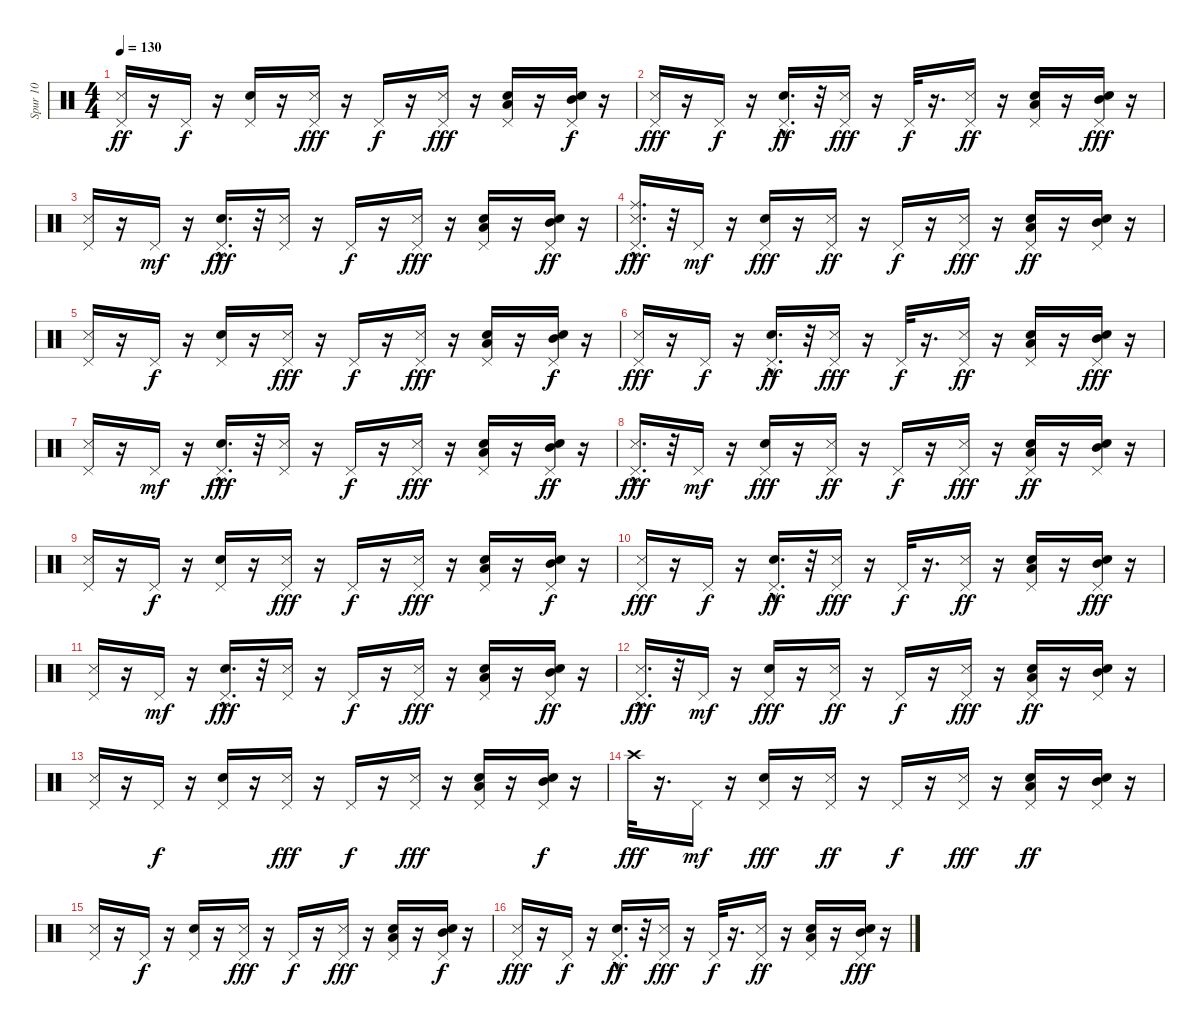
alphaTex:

\track ("Spur 10" "Spur 10") {instrument percussion}
\staff {score}
\articulation defaults
\ts (4 4)
\tempo 130
\clef neutral
\ks c
("Metronome (hit)" "Pedal Hi-Hat (hit)").16{dy ff} r.16 "Pedal Hi-Hat (hit)".16{dy f} r.16 ("Snare (hit) 2" "Pedal Hi-Hat (hit)").16 r.16 ("Metronome (hit)" "Pedal Hi-Hat (hit)").16{dy fff} r.16 "Pedal Hi-Hat (hit)".16{dy f} r.16 ("Metronome (hit)" "Pedal Hi-Hat (hit)").16{dy fff} r.16 ("Snare (hit) 2" "Low Tom (hit)" "Pedal Hi-Hat (hit)").16 r.16 ("Snare (hit) 2" "Mid Tom (hit)" "Pedal Hi-Hat (hit)").16{dy f} r.16 |
("Pedal Hi-Hat (hit)" "Metronome (hit)").16{dy fff} r.16 "Pedal Hi-Hat (hit)".16{dy f} r.16 ("Snare (hit) 2"{hac} "Pedal Hi-Hat (hit)").16{d dy ff} r.32 ("Metronome (hit)" "Pedal Hi-Hat (hit)").16{dy fff} r.16 "Pedal Hi-Hat (hit)".32{dy f} r.16{d} ("Metronome (hit)" "Pedal Hi-Hat (hit)").16{dy ff} r.16 ("Low Tom (hit)" "Snare (hit) 2" "Pedal Hi-Hat (hit)").16 r.16 ("Mid Tom (hit)" "Snare (hit) 2" "Pedal Hi-Hat (hit)").16{dy fff} r.16 |
("Pedal Hi-Hat (hit)" "Metronome (hit)").16 r.16 "Pedal Hi-Hat (hit)".16{dy mf} r.16 ("Pedal Hi-Hat (hit)" "Snare (hit) 2"{hac}).16{d dy fff} r.32 ("Pedal Hi-Hat (hit)" "Metronome (hit)").16 r.16 "Pedal Hi-Hat (hit)".16{dy f} r.16 ("Pedal Hi-Hat (hit)" "Metronome (hit)").16{dy fff} r.16 ("Low Tom (hit)" "Pedal Hi-Hat (hit)" "Snare (hit) 2").16 r.16 ("Mid Tom (hit)" "Pedal Hi-Hat (hit)" "Snare (hit) 2").16{dy ff} r.16 |
("Ride (middle)" "Pedal Hi-Hat (hit)" "Metronome (hit)"{hac}).16{d dy fff} r.32 "Pedal Hi-Hat (hit)".16{dy mf} r.16 ("Pedal Hi-Hat (hit)" "Snare (hit) 2").16{dy fff} r.16 ("Metronome (hit)" "Pedal Hi-Hat (hit)").16{dy ff} r.16 "Pedal Hi-Hat (hit)".16{dy f} r.16 ("Metronome (hit)" "Pedal Hi-Hat (hit)").16{dy fff} r.16 ("Snare (hit) 2" "Low Tom (hit)" "Pedal Hi-Hat (hit)").16{dy ff} r.16 ("Snare (hit) 2" "Mid Tom (hit)" "Pedal Hi-Hat (hit)").16 r.16 |
("Metronome (hit)" "Pedal Hi-Hat (hit)").16 r.16 "Pedal Hi-Hat (hit)".16{dy f} r.16 ("Snare (hit) 2" "Pedal Hi-Hat (hit)").16 r.16 ("Metronome (hit)" "Pedal Hi-Hat (hit)").16{dy fff} r.16 "Pedal Hi-Hat (hit)".16{dy f} r.16 ("Metronome (hit)" "Pedal Hi-Hat (hit)").16{dy fff} r.16 ("Snare (hit) 2" "Low Tom (hit)" "Pedal Hi-Hat (hit)").16 r.16 ("Snare (hit) 2" "Mid Tom (hit)" "Pedal Hi-Hat (hit)").16{dy f} r.16 |
("Pedal Hi-Hat (hit)" "Metronome (hit)").16{dy fff} r.16 "Pedal Hi-Hat (hit)".16{dy f} r.16 ("Snare (hit) 2"{hac} "Pedal Hi-Hat (hit)").16{d dy ff} r.32 ("Metronome (hit)" "Pedal Hi-Hat (hit)").16{dy fff} r.16 "Pedal Hi-Hat (hit)".32{dy f} r.16{d} ("Metronome (hit)" "Pedal Hi-Hat (hit)").16{dy ff} r.16 ("Low Tom (hit)" "Snare (hit) 2" "Pedal Hi-Hat (hit)").16 r.16 ("Mid Tom (hit)" "Snare (hit) 2" "Pedal Hi-Hat (hit)").16{dy fff} r.16 |
("Pedal Hi-Hat (hit)" "Metronome (hit)").16 r.16 "Pedal Hi-Hat (hit)".16{dy mf} r.16 ("Pedal Hi-Hat (hit)" "Snare (hit) 2"{hac}).16{d dy fff} r.32 ("Pedal Hi-Hat (hit)" "Metronome (hit)").16 r.16 "Pedal Hi-Hat (hit)".16{dy f} r.16 ("Pedal Hi-Hat (hit)" "Metronome (hit)").16{dy fff} r.16 ("Low Tom (hit)" "Pedal Hi-Hat (hit)" "Snare (hit) 2").16 r.16 ("Mid Tom (hit)" "Pedal Hi-Hat (hit)" "Snare (hit) 2").16{dy ff} r.16 |
("Pedal Hi-Hat (hit)" "Metronome (hit)"{hac}).16{d dy fff} r.32 "Pedal Hi-Hat (hit)".16{dy mf} r.16 ("Pedal Hi-Hat (hit)" "Snare (hit) 2").16{dy fff} r.16 ("Metronome (hit)" "Pedal Hi-Hat (hit)").16{dy ff} r.16 "Pedal Hi-Hat (hit)".16{dy f} r.16 ("Metronome (hit)" "Pedal Hi-Hat (hit)").16{dy fff} r.16 ("Snare (hit) 2" "Low Tom (hit)" "Pedal Hi-Hat (hit)").16{dy ff} r.16 ("Snare (hit) 2" "Mid Tom (hit)" "Pedal Hi-Hat (hit)").16 r.16 |
("Metronome (hit)" "Pedal Hi-Hat (hit)").16 r.16 "Pedal Hi-Hat (hit)".16{dy f} r.16 ("Snare (hit) 2" "Pedal Hi-Hat (hit)").16 r.16 ("Metronome (hit)" "Pedal Hi-Hat (hit)").16{dy fff} r.16 "Pedal Hi-Hat (hit)".16{dy f} r.16 ("Metronome (hit)" "Pedal Hi-Hat (hit)").16{dy fff} r.16 ("Snare (hit) 2" "Low Tom (hit)" "Pedal Hi-Hat (hit)").16 r.16 ("Snare (hit) 2" "Mid Tom (hit)" "Pedal Hi-Hat (hit)").16{dy f} r.16 |
("Pedal Hi-Hat (hit)" "Metronome (hit)").16{dy fff} r.16 "Pedal Hi-Hat (hit)".16{dy f} r.16 ("Snare (hit) 2"{hac} "Pedal Hi-Hat (hit)").16{d dy ff} r.32 ("Metronome (hit)" "Pedal Hi-Hat (hit)").16{dy fff} r.16 "Pedal Hi-Hat (hit)".32{dy f} r.16{d} ("Metronome (hit)" "Pedal Hi-Hat (hit)").16{dy ff} r.16 ("Low Tom (hit)" "Snare (hit) 2" "Pedal Hi-Hat (hit)").16 r.16 ("Mid Tom (hit)" "Snare (hit) 2" "Pedal Hi-Hat (hit)").16{dy fff} r.16 |
("Pedal Hi-Hat (hit)" "Metronome (hit)").16 r.16 "Pedal Hi-Hat (hit)".16{dy mf} r.16 ("Pedal Hi-Hat (hit)" "Snare (hit) 2"{hac}).16{d dy fff} r.32 ("Pedal Hi-Hat (hit)" "Metronome (hit)").16 r.16 "Pedal Hi-Hat (hit)".16{dy f} r.16 ("Pedal Hi-Hat (hit)" "Metronome (hit)").16{dy fff} r.16 ("Low Tom (hit)" "Pedal Hi-Hat (hit)" "Snare (hit) 2").16 r.16 ("Mid Tom (hit)" "Pedal Hi-Hat (hit)" "Snare (hit) 2").16{dy ff} r.16 |
("Pedal Hi-Hat (hit)" "Metronome (hit)"{hac}).16{d dy fff} r.32 "Pedal Hi-Hat (hit)".16{dy mf} r.16 ("Pedal Hi-Hat (hit)" "Snare (hit) 2").16{dy fff} r.16 ("Metronome (hit)" "Pedal Hi-Hat (hit)").16{dy ff} r.16 "Pedal Hi-Hat (hit)".16{dy f} r.16 ("Metronome (hit)" "Pedal Hi-Hat (hit)").16{dy fff} r.16 ("Snare (hit) 2" "Low Tom (hit)" "Pedal Hi-Hat (hit)").16{dy ff} r.16 ("Snare (hit) 2" "Mid Tom (hit)" "Pedal Hi-Hat (hit)").16 r.16 |
("Metronome (hit)" "Pedal Hi-Hat (hit)").16 r.16 "Pedal Hi-Hat (hit)".16{dy f} r.16 ("Snare (hit) 2" "Pedal Hi-Hat (hit)").16 r.16 ("Metronome (hit)" "Pedal Hi-Hat (hit)").16{dy fff} r.16 "Pedal Hi-Hat (hit)".16{dy f} r.16 ("Metronome (hit)" "Pedal Hi-Hat (hit)").16{dy fff} r.16 ("Snare (hit) 2" "Low Tom (hit)" "Pedal Hi-Hat (hit)").16 r.16 ("Snare (hit) 2" "Mid Tom (hit)" "Pedal Hi-Hat (hit)").16{dy f} r.16 |
"Crash high (hit)".32{dy fff} r.16{d} "Pedal Hi-Hat (hit)".16{dy mf} r.16 ("Pedal Hi-Hat (hit)" "Snare (hit) 2").16{dy fff} r.16 ("Metronome (hit)" "Pedal Hi-Hat (hit)").16{dy ff} r.16 "Pedal Hi-Hat (hit)".16{dy f} r.16 ("Metronome (hit)" "Pedal Hi-Hat (hit)").16{dy fff} r.16 ("Snare (hit) 2" "Low Tom (hit)" "Pedal Hi-Hat (hit)").16{dy ff} r.16 ("Snare (hit) 2" "Mid Tom (hit)" "Pedal Hi-Hat (hit)").16 r.16 |
("Metronome (hit)" "Pedal Hi-Hat (hit)").16 r.16 "Pedal Hi-Hat (hit)".16{dy f} r.16 ("Snare (hit) 2" "Pedal Hi-Hat (hit)").16 r.16 ("Metronome (hit)" "Pedal Hi-Hat (hit)").16{dy fff} r.16 "Pedal Hi-Hat (hit)".16{dy f} r.16 ("Metronome (hit)" "Pedal Hi-Hat (hit)").16{dy fff} r.16 ("Snare (hit) 2" "Low Tom (hit)" "Pedal Hi-Hat (hit)").16 r.16 ("Snare (hit) 2" "Mid Tom (hit)" "Pedal Hi-Hat (hit)").16{dy f} r.16 |
("Pedal Hi-Hat (hit)" "Metronome (hit)").16{dy fff} r.16 "Pedal Hi-Hat (hit)".16{dy f} r.16 ("Snare (hit) 2"{hac} "Pedal Hi-Hat (hit)").16{d dy ff} r.32 ("Metronome (hit)" "Pedal Hi-Hat (hit)").16{dy fff} r.16 "Pedal Hi-Hat (hit)".32{dy f} r.16{d} ("Metronome (hit)" "Pedal Hi-Hat (hit)").16{dy ff} r.16 ("Low Tom (hit)" "Snare (hit) 2" "Pedal Hi-Hat (hit)").16 r.16 ("Mid Tom (hit)" "Snare (hit) 2" "Pedal Hi-Hat (hit)").16{dy fff} r.16
